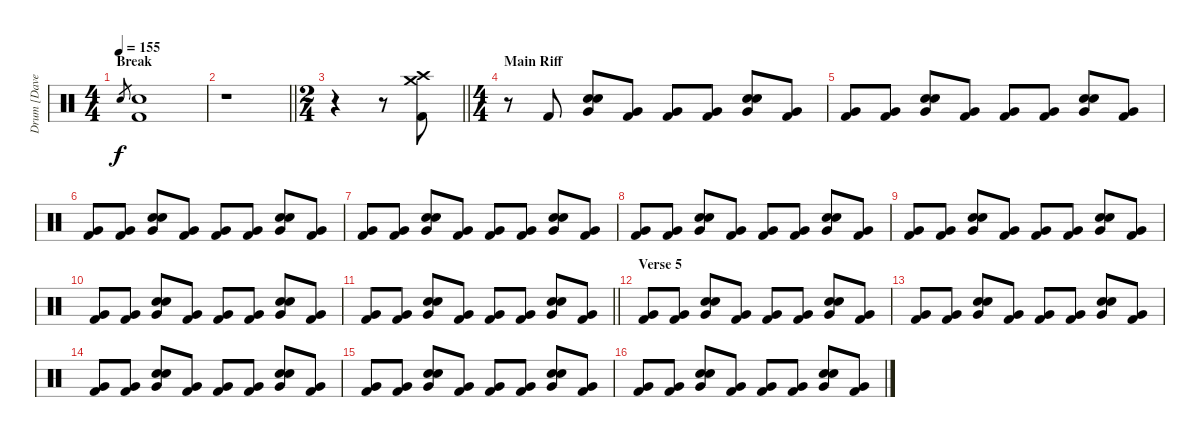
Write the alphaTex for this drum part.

\track ("Drum [Dave Grohl]" "Drum [Dave") {instrument percussion}
\staff {score}
\articulation defaults
\ts (4 4)
\section ("" "Break")
\tempo 155
\clef neutral
\ks c "Snare (hit) 2".8{gr dy f}
("Snare (hit) 2" "Kick (hit) 2").1 |
\barLineRight lightlight
r.1 |
\ts (2 4)
\barLineRight lightlight
r.4 r.8 ("Crash high (hit)" "Crash medium (hit)" "Kick (hit) 2").8 |
\ts (4 4)
\section ("" "Main Riff")
r.8 "Kick (hit) 2".8 ("Hand Clap (hit)" "Very Low Tom (hit)" "Snare (hit) 2").8 ("Very Low Tom (hit)" "Kick (hit) 2").8 ("Very Low Tom (hit)" "Kick (hit) 2").8 ("Very Low Tom (hit)" "Kick (hit) 2").8 ("Hand Clap (hit)" "Very Low Tom (hit)" "Snare (hit) 2").8 ("Very Low Tom (hit)" "Kick (hit) 2").8 |
("Very Low Tom (hit)" "Kick (hit) 2").8 ("Very Low Tom (hit)" "Kick (hit) 2").8 ("Hand Clap (hit)" "Very Low Tom (hit)" "Snare (hit) 2").8 ("Very Low Tom (hit)" "Kick (hit) 2").8 ("Very Low Tom (hit)" "Kick (hit) 2").8 ("Very Low Tom (hit)" "Kick (hit) 2").8 ("Hand Clap (hit)" "Very Low Tom (hit)" "Snare (hit) 2").8 ("Very Low Tom (hit)" "Kick (hit) 2").8 |
("Very Low Tom (hit)" "Kick (hit) 2").8 ("Very Low Tom (hit)" "Kick (hit) 2").8 ("Hand Clap (hit)" "Very Low Tom (hit)" "Snare (hit) 2").8 ("Very Low Tom (hit)" "Kick (hit) 2").8 ("Very Low Tom (hit)" "Kick (hit) 2").8 ("Very Low Tom (hit)" "Kick (hit) 2").8 ("Hand Clap (hit)" "Very Low Tom (hit)" "Snare (hit) 2").8 ("Very Low Tom (hit)" "Kick (hit) 2").8 |
("Very Low Tom (hit)" "Kick (hit) 2").8 ("Very Low Tom (hit)" "Kick (hit) 2").8 ("Hand Clap (hit)" "Very Low Tom (hit)" "Snare (hit) 2").8 ("Very Low Tom (hit)" "Kick (hit) 2").8 ("Very Low Tom (hit)" "Kick (hit) 2").8 ("Very Low Tom (hit)" "Kick (hit) 2").8 ("Hand Clap (hit)" "Very Low Tom (hit)" "Snare (hit) 2").8 ("Very Low Tom (hit)" "Kick (hit) 2").8 |
("Very Low Tom (hit)" "Kick (hit) 2").8 ("Very Low Tom (hit)" "Kick (hit) 2").8 ("Hand Clap (hit)" "Very Low Tom (hit)" "Snare (hit) 2").8 ("Very Low Tom (hit)" "Kick (hit) 2").8 ("Very Low Tom (hit)" "Kick (hit) 2").8 ("Very Low Tom (hit)" "Kick (hit) 2").8 ("Hand Clap (hit)" "Very Low Tom (hit)" "Snare (hit) 2").8 ("Very Low Tom (hit)" "Kick (hit) 2").8 |
("Very Low Tom (hit)" "Kick (hit) 2").8 ("Very Low Tom (hit)" "Kick (hit) 2").8 ("Hand Clap (hit)" "Very Low Tom (hit)" "Snare (hit) 2").8 ("Very Low Tom (hit)" "Kick (hit) 2").8 ("Very Low Tom (hit)" "Kick (hit) 2").8 ("Very Low Tom (hit)" "Kick (hit) 2").8 ("Hand Clap (hit)" "Very Low Tom (hit)" "Snare (hit) 2").8 ("Very Low Tom (hit)" "Kick (hit) 2").8 |
("Very Low Tom (hit)" "Kick (hit) 2").8 ("Very Low Tom (hit)" "Kick (hit) 2").8 ("Hand Clap (hit)" "Very Low Tom (hit)" "Snare (hit) 2").8 ("Very Low Tom (hit)" "Kick (hit) 2").8 ("Very Low Tom (hit)" "Kick (hit) 2").8 ("Very Low Tom (hit)" "Kick (hit) 2").8 ("Hand Clap (hit)" "Very Low Tom (hit)" "Snare (hit) 2").8 ("Very Low Tom (hit)" "Kick (hit) 2").8 |
\barLineRight lightlight
("Very Low Tom (hit)" "Kick (hit) 2").8 ("Very Low Tom (hit)" "Kick (hit) 2").8 ("Hand Clap (hit)" "Very Low Tom (hit)" "Snare (hit) 2").8 ("Very Low Tom (hit)" "Kick (hit) 2").8 ("Very Low Tom (hit)" "Kick (hit) 2").8 ("Very Low Tom (hit)" "Kick (hit) 2").8 ("Hand Clap (hit)" "Very Low Tom (hit)" "Snare (hit) 2").8 ("Very Low Tom (hit)" "Kick (hit) 2").8 |
\section ("" "Verse 5")
("Very Low Tom (hit)" "Kick (hit) 2").8 ("Very Low Tom (hit)" "Kick (hit) 2").8 ("Hand Clap (hit)" "Very Low Tom (hit)" "Snare (hit) 2").8 ("Very Low Tom (hit)" "Kick (hit) 2").8 ("Very Low Tom (hit)" "Kick (hit) 2").8 ("Very Low Tom (hit)" "Kick (hit) 2").8 ("Hand Clap (hit)" "Very Low Tom (hit)" "Snare (hit) 2").8 ("Very Low Tom (hit)" "Kick (hit) 2").8 |
("Very Low Tom (hit)" "Kick (hit) 2").8 ("Very Low Tom (hit)" "Kick (hit) 2").8 ("Hand Clap (hit)" "Very Low Tom (hit)" "Snare (hit) 2").8 ("Very Low Tom (hit)" "Kick (hit) 2").8 ("Very Low Tom (hit)" "Kick (hit) 2").8 ("Very Low Tom (hit)" "Kick (hit) 2").8 ("Hand Clap (hit)" "Very Low Tom (hit)" "Snare (hit) 2").8 ("Very Low Tom (hit)" "Kick (hit) 2").8 |
("Very Low Tom (hit)" "Kick (hit) 2").8 ("Very Low Tom (hit)" "Kick (hit) 2").8 ("Hand Clap (hit)" "Very Low Tom (hit)" "Snare (hit) 2").8 ("Very Low Tom (hit)" "Kick (hit) 2").8 ("Very Low Tom (hit)" "Kick (hit) 2").8 ("Very Low Tom (hit)" "Kick (hit) 2").8 ("Hand Clap (hit)" "Very Low Tom (hit)" "Snare (hit) 2").8 ("Very Low Tom (hit)" "Kick (hit) 2").8 |
("Very Low Tom (hit)" "Kick (hit) 2").8 ("Very Low Tom (hit)" "Kick (hit) 2").8 ("Hand Clap (hit)" "Very Low Tom (hit)" "Snare (hit) 2").8 ("Very Low Tom (hit)" "Kick (hit) 2").8 ("Very Low Tom (hit)" "Kick (hit) 2").8 ("Very Low Tom (hit)" "Kick (hit) 2").8 ("Hand Clap (hit)" "Very Low Tom (hit)" "Snare (hit) 2").8 ("Very Low Tom (hit)" "Kick (hit) 2").8 |
("Very Low Tom (hit)" "Kick (hit) 2").8 ("Very Low Tom (hit)" "Kick (hit) 2").8 ("Hand Clap (hit)" "Very Low Tom (hit)" "Snare (hit) 2").8 ("Very Low Tom (hit)" "Kick (hit) 2").8 ("Very Low Tom (hit)" "Kick (hit) 2").8 ("Very Low Tom (hit)" "Kick (hit) 2").8 ("Hand Clap (hit)" "Very Low Tom (hit)" "Snare (hit) 2").8 ("Very Low Tom (hit)" "Kick (hit) 2").8
